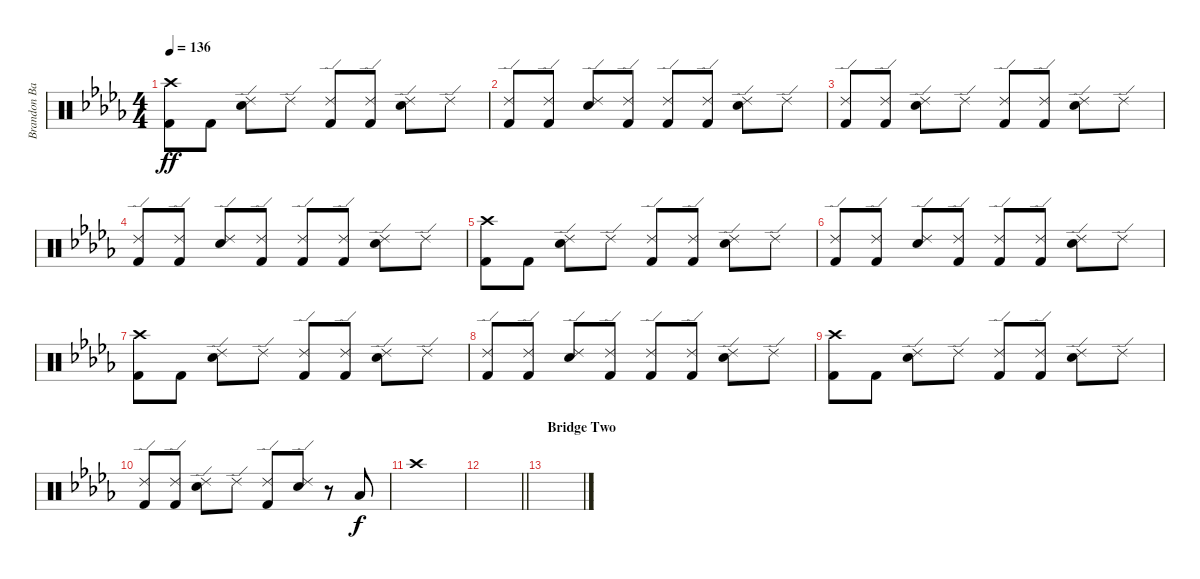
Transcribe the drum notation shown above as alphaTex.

\track ("Brandon Barnes - Drums" "Brandon Ba") {instrument percussion}
\staff {score}
\articulation defaults
\ts (4 4)
\tempo 136
\clef neutral
\ks db
("Crash high (hit)" "Kick (hit) 2").8{dy ff} "Kick (hit) 2".8 ("Snare (hit) 2" "Ride (edge) 2").8 "Ride (edge) 2".8 ("Kick (hit) 2" "Ride (edge) 2").8 ("Kick (hit) 2" "Ride (edge) 2").8 ("Snare (hit) 2" "Ride (edge) 2").8 "Ride (edge) 2".8 |
("Kick (hit) 2" "Ride (edge) 2").8 ("Kick (hit) 2" "Ride (edge) 2").8 ("Snare (hit) 2" "Ride (edge) 2").8 ("Kick (hit) 2" "Ride (edge) 2").8 ("Kick (hit) 2" "Ride (edge) 2").8 ("Kick (hit) 2" "Ride (edge) 2").8 ("Snare (hit) 2" "Ride (edge) 2").8 "Ride (edge) 2".8 |
("Kick (hit) 2" "Ride (edge) 2").8 ("Kick (hit) 2" "Ride (edge) 2").8 ("Snare (hit) 2" "Ride (edge) 2").8 "Ride (edge) 2".8 ("Kick (hit) 2" "Ride (edge) 2").8 ("Kick (hit) 2" "Ride (edge) 2").8 ("Snare (hit) 2" "Ride (edge) 2").8 "Ride (edge) 2".8 |
("Kick (hit) 2" "Ride (edge) 2").8 ("Kick (hit) 2" "Ride (edge) 2").8 ("Snare (hit) 2" "Ride (edge) 2").8 ("Kick (hit) 2" "Ride (edge) 2").8 ("Kick (hit) 2" "Ride (edge) 2").8 ("Kick (hit) 2" "Ride (edge) 2").8 ("Snare (hit) 2" "Ride (edge) 2").8 "Ride (edge) 2".8 |
("Crash high (hit)" "Kick (hit) 2").8 "Kick (hit) 2".8 ("Snare (hit) 2" "Ride (edge) 2").8 "Ride (edge) 2".8 ("Kick (hit) 2" "Ride (edge) 2").8 ("Kick (hit) 2" "Ride (edge) 2").8 ("Snare (hit) 2" "Ride (edge) 2").8 "Ride (edge) 2".8 |
("Kick (hit) 2" "Ride (edge) 2").8 ("Kick (hit) 2" "Ride (edge) 2").8 ("Snare (hit) 2" "Ride (edge) 2").8 ("Kick (hit) 2" "Ride (edge) 2").8 ("Kick (hit) 2" "Ride (edge) 2").8 ("Kick (hit) 2" "Ride (edge) 2").8 ("Snare (hit) 2" "Ride (edge) 2").8 "Ride (edge) 2".8 |
("Crash high (hit)" "Kick (hit) 2").8 "Kick (hit) 2".8 ("Snare (hit) 2" "Ride (edge) 2").8 "Ride (edge) 2".8 ("Kick (hit) 2" "Ride (edge) 2").8 ("Kick (hit) 2" "Ride (edge) 2").8 ("Snare (hit) 2" "Ride (edge) 2").8 "Ride (edge) 2".8 |
("Kick (hit) 2" "Ride (edge) 2").8 ("Kick (hit) 2" "Ride (edge) 2").8 ("Snare (hit) 2" "Ride (edge) 2").8 ("Kick (hit) 2" "Ride (edge) 2").8 ("Kick (hit) 2" "Ride (edge) 2").8 ("Kick (hit) 2" "Ride (edge) 2").8 ("Snare (hit) 2" "Ride (edge) 2").8 "Ride (edge) 2".8 |
("Crash high (hit)" "Kick (hit) 2").8 "Kick (hit) 2".8 ("Snare (hit) 2" "Ride (edge) 2").8 "Ride (edge) 2".8 ("Kick (hit) 2" "Ride (edge) 2").8 ("Kick (hit) 2" "Ride (edge) 2").8 ("Snare (hit) 2" "Ride (edge) 2").8 "Ride (edge) 2".8 |
("Kick (hit) 2" "Ride (edge) 2").8 ("Kick (hit) 2" "Ride (edge) 2").8 ("Snare (hit) 2" "Ride (edge) 2").8 "Ride (edge) 2".8 ("Kick (hit) 2" "Ride (edge) 2").8 ("Snare (hit) 2" "Ride (edge) 2").8 r.8 "Low Tom (hit)".8{dy f} |
"Crash high (hit)".1 |
\barLineRight lightlight
|
\section ("" "Bridge Two")
